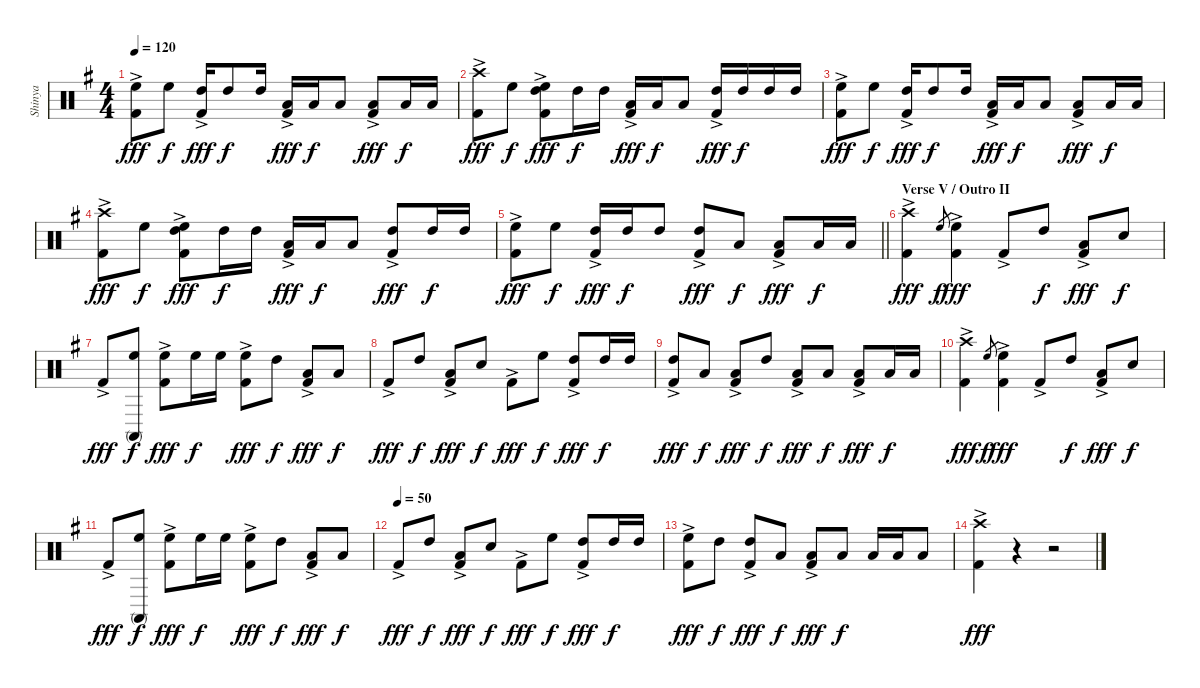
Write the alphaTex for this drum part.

\track ("Shinya" "Shinya") {instrument percussion}
\staff {score}
\articulation defaults
\ts (4 4)
\tempo 120
\clef neutral
\ks g
("High Floor Tom (hit)" "Kick (hit) 2"{ac}).8{dy fff} "High Floor Tom (hit)".8{dy f} ("High Tom (hit)" "Kick (hit) 2"{ac}).16{dy fff} "High Tom (hit)".8{dy f} "High Tom (hit)".16 ("Low Tom (hit)" "Kick (hit) 2"{ac}).16{dy fff} "Low Tom (hit)".16{dy f} "Low Tom (hit)".8 ("Low Floor Tom (hit)" "Kick (hit) 2"{ac}).8{dy fff} "Low Floor Tom (hit)".16{dy f} "Low Floor Tom (hit)".16 |
("Crash high (hit)"{ac} "Kick (hit) 2"{ac}).8{dy fff} "High Floor Tom (hit)".8{dy f} ("High Floor Tom (hit)" "High Tom (hit)" "Kick (hit) 2"{ac}).8{dy fff} "High Tom (hit)".16{dy f} "High Tom (hit)".16 ("Low Tom (hit)" "Kick (hit) 2"{ac}).16{dy fff} "Low Tom (hit)".16{dy f} "Low Tom (hit)".8 ("High Tom (hit)" "Kick (hit) 2"{ac}).16{dy fff} "High Tom (hit)".16{dy f} "High Tom (hit)".16 "High Tom (hit)".16 |
("High Floor Tom (hit)" "Kick (hit) 2"{ac}).8{dy fff} "High Floor Tom (hit)".8{dy f} ("High Tom (hit)" "Kick (hit) 2"{ac}).16{dy fff} "High Tom (hit)".8{dy f} "High Tom (hit)".16 ("Low Tom (hit)" "Kick (hit) 2"{ac}).16{dy fff} "Low Tom (hit)".16{dy f} "Low Tom (hit)".8 ("Low Floor Tom (hit)" "Kick (hit) 2"{ac}).8{dy fff} "Low Floor Tom (hit)".16{dy f} "Low Floor Tom (hit)".16 |
("Crash high (hit)"{ac} "Kick (hit) 2"{ac}).8{dy fff} "High Floor Tom (hit)".8{dy f} ("High Floor Tom (hit)" "High Tom (hit)" "Kick (hit) 2"{ac}).8{dy fff} "High Tom (hit)".16{dy f} "High Tom (hit)".16 ("Low Tom (hit)" "Kick (hit) 2"{ac}).16{dy fff} "Low Tom (hit)".16{dy f} "Low Tom (hit)".8 ("High Tom (hit)" "Kick (hit) 2"{ac}).8{dy fff} "High Tom (hit)".16{dy f} "High Tom (hit)".16 |
\barLineRight lightlight
("High Floor Tom (hit)" "Kick (hit) 2"{ac}).8{dy fff} "High Floor Tom (hit)".8{dy f} ("High Tom (hit)" "Kick (hit) 2"{ac}).16{dy fff} "High Tom (hit)".16{dy f} "High Tom (hit)".8 ("High Tom (hit)" "Kick (hit) 2"{ac}).8{dy fff} "Low Tom (hit)".8{dy f} ("Low Floor Tom (hit)" "Kick (hit) 2"{ac}).8{dy fff} "Low Floor Tom (hit)".16{dy f} "Low Floor Tom (hit)".16 |
\section ("" "Verse V / Outro II")
("Crash high (hit)"{ac} "Kick (hit) 2").4{dy fff} "High Floor Tom (hit)".8{gr dy f} ("High Floor Tom (hit)" "Kick (hit) 2"{ac}).4{dy fff} "Kick (hit) 2"{ac}.8 "High Tom (hit)".8{dy f} ("Low Tom (hit)" "Kick (hit) 2"{ac}).8{dy fff} "Snare (hit) 2".8{dy f} |
"Kick (hit) 2"{ac}.8{dy fff} ("Conga high (mute)" "High Floor Tom (hit)").8{dy f} ("High Floor Tom (hit)" "Kick (hit) 2"{ac}).8{dy fff} "High Floor Tom (hit)".16{dy f} "High Floor Tom (hit)".16 ("High Floor Tom (hit)" "Kick (hit) 2"{ac}).8{dy fff} "High Tom (hit)".8{dy f} ("Low Tom (hit)" "Kick (hit) 2"{ac}).8{dy fff} "Low Floor Tom (hit)".8{dy f} |
"Kick (hit) 2"{ac}.8{dy fff} "High Tom (hit)".8{dy f} ("Low Tom (hit)" "Kick (hit) 2"{ac}).8{dy fff} "Snare (hit) 2".8{dy f} "Kick (hit) 2"{ac}.8{dy fff} "High Floor Tom (hit)".8{dy f} ("High Tom (hit)" "Kick (hit) 2"{ac}).8{dy fff} "High Tom (hit)".16{dy f} "High Tom (hit)".16 |
("High Tom (hit)" "Kick (hit) 2"{ac}).8{dy fff} "Low Tom (hit)".8{dy f} ("Low Floor Tom (hit)" "Kick (hit) 2"{ac}).8{dy fff} "High Tom (hit)".8{dy f} ("Low Tom (hit)" "Kick (hit) 2"{ac}).8{dy fff} "Low Floor Tom (hit)".8{dy f} ("Low Floor Tom (hit)" "Kick (hit) 2"{ac}).8{dy fff} "Low Floor Tom (hit)".16{dy f} "Low Floor Tom (hit)".16 |
("Crash high (hit)"{ac} "Kick (hit) 2").4{dy fff} "High Floor Tom (hit)".8{gr dy f} ("High Floor Tom (hit)" "Kick (hit) 2"{ac}).4{dy fff} "Kick (hit) 2"{ac}.8 "High Tom (hit)".8{dy f} ("Low Tom (hit)" "Kick (hit) 2"{ac}).8{dy fff} "Snare (hit) 2".8{dy f} |
"Kick (hit) 2"{ac}.8{dy fff} ("Conga high (mute)" "High Floor Tom (hit)").8{dy f} ("High Floor Tom (hit)" "Kick (hit) 2"{ac}).8{dy fff} "High Floor Tom (hit)".16{dy f} "High Floor Tom (hit)".16 ("High Floor Tom (hit)" "Kick (hit) 2"{ac}).8{dy fff} "High Tom (hit)".8{dy f} ("Low Tom (hit)" "Kick (hit) 2"{ac}).8{dy fff} "Low Floor Tom (hit)".8{dy f} |
\tempo (50)
"Kick (hit) 2"{ac}.8{dy fff} "High Tom (hit)".8{dy f} ("Low Tom (hit)" "Kick (hit) 2"{ac}).8{dy fff} "Snare (hit) 2".8{dy f} "Kick (hit) 2"{ac}.8{dy fff} "High Floor Tom (hit)".8{dy f} ("High Tom (hit)" "Kick (hit) 2"{ac}).8{dy fff} "High Tom (hit)".16{dy f} "High Tom (hit)".16 |
("High Floor Tom (hit)" "Kick (hit) 2"{ac}).8{dy fff} "High Tom (hit)".8{dy f} ("High Tom (hit)" "Kick (hit) 2"{ac}).8{dy fff} "Low Floor Tom (hit)".8{dy f} ("Low Tom (hit)" "Kick (hit) 2"{ac}).8{dy fff} "Low Tom (hit)".8{dy f} "Low Tom (hit)".16 "Low Tom (hit)".16 "Low Floor Tom (hit)".8 |
("Crash high (hit)"{ac} "Kick (hit) 2"{ac}).4{dy fff} r.4 r.2
